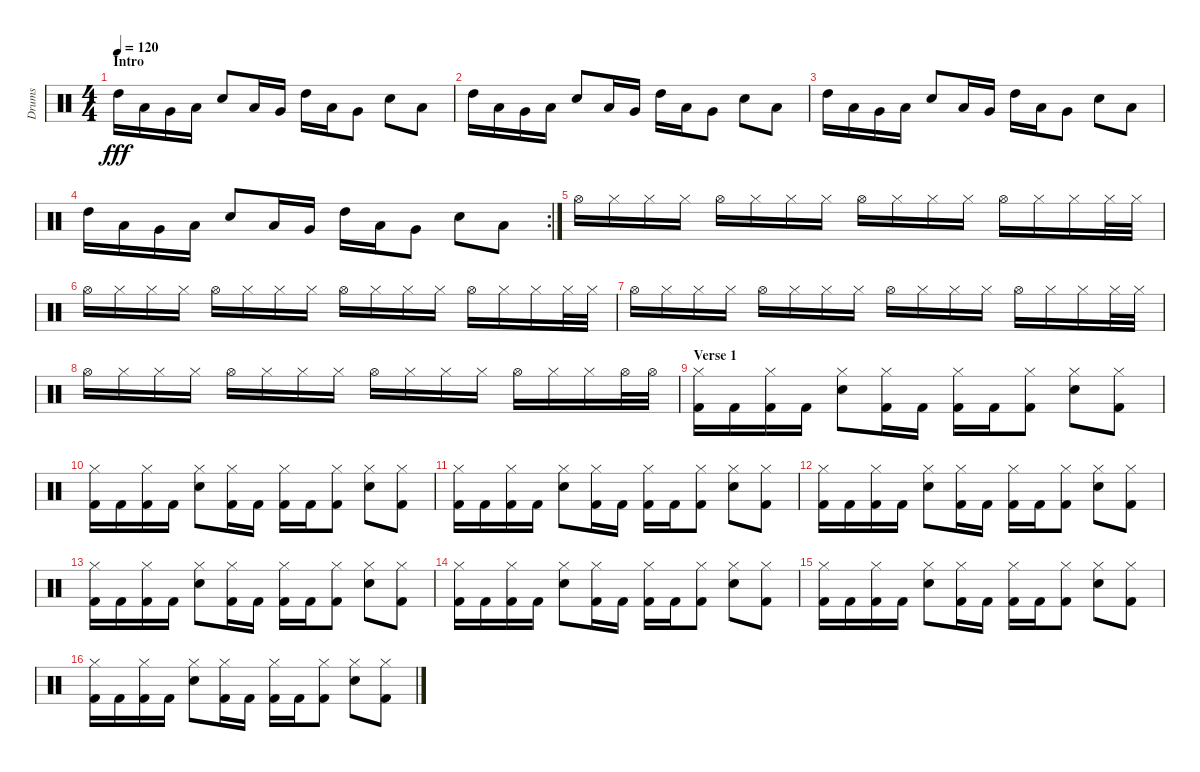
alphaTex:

\track ("Drums" "Drums") {instrument percussion}
\staff {score}
\articulation defaults
\ts (4 4)
\section ("" "Intro")
\tempo 120
\clef neutral
\ks c "High Tom (hit)".16{dy fff} "Low Tom (hit)".16 "Very Low Tom (hit)".16 "Low Floor Tom (hit)".16 "Electric Snare (hit)".8 "Low Tom (hit)".16 "Very Low Tom (hit)".16 "High Tom (hit)".16 "Low Tom (hit)".16 "Very Low Tom (hit)".8 "Electric Snare (hit)".8 "Low Floor Tom (hit)".8
|
"High Tom (hit)".16 "Low Tom (hit)".16 "Very Low Tom (hit)".16 "Low Floor Tom (hit)".16 "Electric Snare (hit)".8 "Low Tom (hit)".16 "Very Low Tom (hit)".16 "High Tom (hit)".16 "Low Tom (hit)".16 "Very Low Tom (hit)".8 "Electric Snare (hit)".8 "Low Floor Tom (hit)".8 |
"High Tom (hit)".16 "Low Tom (hit)".16 "Very Low Tom (hit)".16 "Low Floor Tom (hit)".16 "Electric Snare (hit)".8 "Low Tom (hit)".16 "Very Low Tom (hit)".16 "High Tom (hit)".16 "Low Tom (hit)".16 "Very Low Tom (hit)".8 "Electric Snare (hit)".8 "Low Floor Tom (hit)".8 |
\rc 2 "High Tom (hit)".16 "Low Tom (hit)".16 "Very Low Tom (hit)".16 "Low Floor Tom (hit)".16 "Electric Snare (hit)".8 "Low Tom (hit)".16 "Very Low Tom (hit)".16 "High Tom (hit)".16 "Low Tom (hit)".16 "Very Low Tom (hit)".8 "Electric Snare (hit)".8 "Low Floor Tom (hit)".8
|
"Hi-Hat (open)".16 "Hi-Hat (closed)".16 "Hi-Hat (closed)".16 "Hi-Hat (closed)".16 "Hi-Hat (open)".16 "Hi-Hat (closed)".16 "Hi-Hat (closed)".16 "Hi-Hat (closed)".16 "Hi-Hat (open)".16 "Hi-Hat (closed)".16 "Hi-Hat (closed)".16 "Hi-Hat (closed)".16 "Hi-Hat (open)".16 "Hi-Hat (closed)".16 "Hi-Hat (closed)".16 "Hi-Hat (closed)".32 "Hi-Hat (closed)".32 |
"Hi-Hat (open)".16 "Hi-Hat (closed)".16 "Hi-Hat (closed)".16 "Hi-Hat (closed)".16 "Hi-Hat (open)".16 "Hi-Hat (closed)".16 "Hi-Hat (closed)".16 "Hi-Hat (closed)".16 "Hi-Hat (open)".16 "Hi-Hat (closed)".16 "Hi-Hat (closed)".16 "Hi-Hat (closed)".16 "Hi-Hat (open)".16 "Hi-Hat (closed)".16 "Hi-Hat (closed)".16 "Hi-Hat (closed)".32 "Hi-Hat (closed)".32 |
"Hi-Hat (open)".16 "Hi-Hat (closed)".16 "Hi-Hat (closed)".16 "Hi-Hat (closed)".16 "Hi-Hat (open)".16 "Hi-Hat (closed)".16 "Hi-Hat (closed)".16 "Hi-Hat (closed)".16 "Hi-Hat (open)".16 "Hi-Hat (closed)".16 "Hi-Hat (closed)".16 "Hi-Hat (closed)".16 "Hi-Hat (open)".16 "Hi-Hat (closed)".16 "Hi-Hat (closed)".16 "Hi-Hat (closed)".32 "Hi-Hat (closed)".32 |
"Hi-Hat (open)".16 "Hi-Hat (closed)".16 "Hi-Hat (closed)".16 "Hi-Hat (closed)".16 "Hi-Hat (open)".16 "Hi-Hat (closed)".16 "Hi-Hat (closed)".16 "Hi-Hat (closed)".16 "Hi-Hat (open)".16 "Hi-Hat (closed)".16 "Hi-Hat (closed)".16 "Hi-Hat (closed)".16 "Hi-Hat (open)".16 "Hi-Hat (closed)".16 "Hi-Hat (closed)".16 "Hi-Hat (open)".32 "Hi-Hat (open)".32 |
\section ("" "Verse 1")
("Hi-Hat (closed)" "Kick (hit) 2").16 "Kick (hit) 2".16 ("Hi-Hat (closed)" "Kick (hit) 2").16 "Kick (hit) 2".16 ("Hi-Hat (closed)" "Electric Snare (hit)").8 ("Hi-Hat (closed)" "Kick (hit) 2").16 "Kick (hit) 2".16 ("Hi-Hat (closed)" "Kick (hit) 2").16 "Kick (hit) 2".16 ("Hi-Hat (closed)" "Kick (hit) 2").8 ("Hi-Hat (closed)" "Electric Snare (hit)").8 ("Hi-Hat (closed)" "Kick (hit) 2").8 |
("Hi-Hat (closed)" "Kick (hit) 2").16 "Kick (hit) 2".16 ("Hi-Hat (closed)" "Kick (hit) 2").16 "Kick (hit) 2".16 ("Hi-Hat (closed)" "Electric Snare (hit)").8 ("Hi-Hat (closed)" "Kick (hit) 2").16 "Kick (hit) 2".16 ("Hi-Hat (closed)" "Kick (hit) 2").16 "Kick (hit) 2".16 ("Hi-Hat (closed)" "Kick (hit) 2").8 ("Hi-Hat (closed)" "Electric Snare (hit)").8 ("Hi-Hat (closed)" "Kick (hit) 2").8 |
("Hi-Hat (closed)" "Kick (hit) 2").16 "Kick (hit) 2".16 ("Hi-Hat (closed)" "Kick (hit) 2").16 "Kick (hit) 2".16 ("Hi-Hat (closed)" "Electric Snare (hit)").8 ("Hi-Hat (closed)" "Kick (hit) 2").16 "Kick (hit) 2".16 ("Hi-Hat (closed)" "Kick (hit) 2").16 "Kick (hit) 2".16 ("Hi-Hat (closed)" "Kick (hit) 2").8 ("Hi-Hat (closed)" "Electric Snare (hit)").8 ("Hi-Hat (closed)" "Kick (hit) 2").8 |
("Hi-Hat (closed)" "Kick (hit) 2").16 "Kick (hit) 2".16 ("Hi-Hat (closed)" "Kick (hit) 2").16 "Kick (hit) 2".16 ("Hi-Hat (closed)" "Electric Snare (hit)").8 ("Hi-Hat (closed)" "Kick (hit) 2").16 "Kick (hit) 2".16 ("Hi-Hat (closed)" "Kick (hit) 2").16 "Kick (hit) 2".16 ("Hi-Hat (closed)" "Kick (hit) 2").8 ("Hi-Hat (closed)" "Electric Snare (hit)").8 ("Hi-Hat (closed)" "Kick (hit) 2").8 |
("Hi-Hat (closed)" "Kick (hit) 2").16 "Kick (hit) 2".16 ("Hi-Hat (closed)" "Kick (hit) 2").16 "Kick (hit) 2".16 ("Hi-Hat (closed)" "Electric Snare (hit)").8 ("Hi-Hat (closed)" "Kick (hit) 2").16 "Kick (hit) 2".16 ("Hi-Hat (closed)" "Kick (hit) 2").16 "Kick (hit) 2".16 ("Hi-Hat (closed)" "Kick (hit) 2").8 ("Hi-Hat (closed)" "Electric Snare (hit)").8 ("Hi-Hat (closed)" "Kick (hit) 2").8 |
("Hi-Hat (closed)" "Kick (hit) 2").16 "Kick (hit) 2".16 ("Hi-Hat (closed)" "Kick (hit) 2").16 "Kick (hit) 2".16 ("Hi-Hat (closed)" "Electric Snare (hit)").8 ("Hi-Hat (closed)" "Kick (hit) 2").16 "Kick (hit) 2".16 ("Hi-Hat (closed)" "Kick (hit) 2").16 "Kick (hit) 2".16 ("Hi-Hat (closed)" "Kick (hit) 2").8 ("Hi-Hat (closed)" "Electric Snare (hit)").8 ("Hi-Hat (closed)" "Kick (hit) 2").8 |
("Hi-Hat (closed)" "Kick (hit) 2").16 "Kick (hit) 2".16 ("Hi-Hat (closed)" "Kick (hit) 2").16 "Kick (hit) 2".16 ("Hi-Hat (closed)" "Electric Snare (hit)").8 ("Hi-Hat (closed)" "Kick (hit) 2").16 "Kick (hit) 2".16 ("Hi-Hat (closed)" "Kick (hit) 2").16 "Kick (hit) 2".16 ("Hi-Hat (closed)" "Kick (hit) 2").8 ("Hi-Hat (closed)" "Electric Snare (hit)").8 ("Hi-Hat (closed)" "Kick (hit) 2").8 |
("Hi-Hat (closed)" "Kick (hit) 2").16 "Kick (hit) 2".16 ("Hi-Hat (closed)" "Kick (hit) 2").16 "Kick (hit) 2".16 ("Hi-Hat (closed)" "Electric Snare (hit)").8 ("Hi-Hat (closed)" "Kick (hit) 2").16 "Kick (hit) 2".16 ("Hi-Hat (closed)" "Kick (hit) 2").16 "Kick (hit) 2".16 ("Hi-Hat (closed)" "Kick (hit) 2").8 ("Hi-Hat (closed)" "Electric Snare (hit)").8 ("Hi-Hat (closed)" "Kick (hit) 2").8
